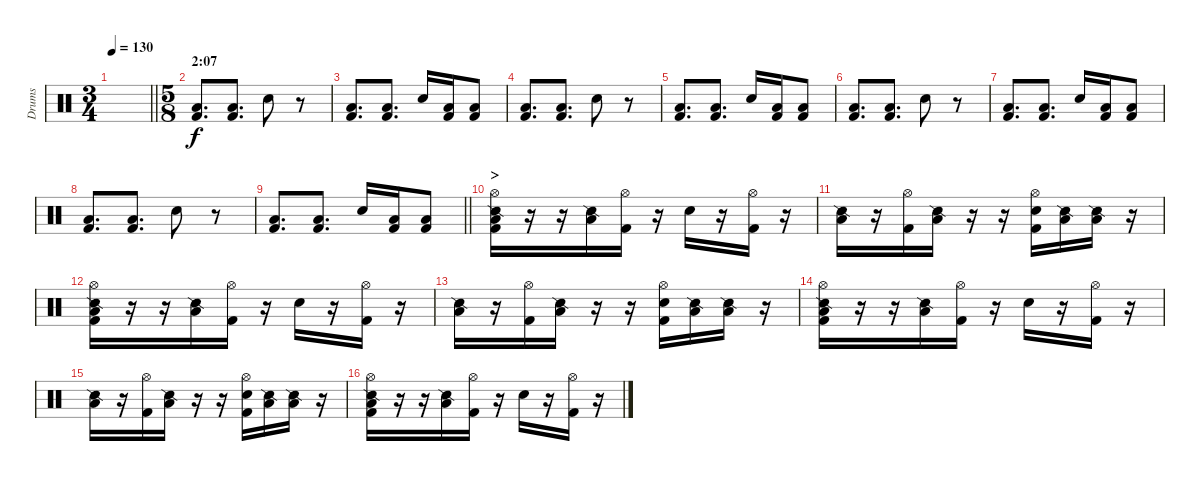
\track ("Drums" "Drums") {instrument percussion}
\staff {score}
\articulation defaults
\ts (3 4)
\tempo 130
\clef neutral
\barLineRight lightlight
\ks c
|
\ts (5 8)
\section ("" "2:07")
("Low Floor Tom (hit)" "Kick (hit) 2").8{d dy f} ("Low Floor Tom (hit)" "Kick (hit) 2").8{d} "Electric Snare (hit)".8 r.8 |
("Low Floor Tom (hit)" "Kick (hit) 2").8{d} ("Low Floor Tom (hit)" "Kick (hit) 2").8{d} "Electric Snare (hit)".16 ("Low Floor Tom (hit)" "Kick (hit) 2").16 ("Low Floor Tom (hit)" "Kick (hit) 2").8 |
("Low Floor Tom (hit)" "Kick (hit) 2").8{d} ("Low Floor Tom (hit)" "Kick (hit) 2").8{d} "Electric Snare (hit)".8 r.8 |
("Low Floor Tom (hit)" "Kick (hit) 2").8{d} ("Low Floor Tom (hit)" "Kick (hit) 2").8{d} "Electric Snare (hit)".16 ("Low Floor Tom (hit)" "Kick (hit) 2").16 ("Low Floor Tom (hit)" "Kick (hit) 2").8 |
("Low Floor Tom (hit)" "Kick (hit) 2").8{d} ("Low Floor Tom (hit)" "Kick (hit) 2").8{d} "Electric Snare (hit)".8 r.8 |
("Low Floor Tom (hit)" "Kick (hit) 2").8{d} ("Low Floor Tom (hit)" "Kick (hit) 2").8{d} "Electric Snare (hit)".16 ("Low Floor Tom (hit)" "Kick (hit) 2").16 ("Low Floor Tom (hit)" "Kick (hit) 2").8 |
("Low Floor Tom (hit)" "Kick (hit) 2").8{d} ("Low Floor Tom (hit)" "Kick (hit) 2").8{d} "Electric Snare (hit)".8 r.8 |
\barLineRight lightlight
("Low Floor Tom (hit)" "Kick (hit) 2").8{d} ("Low Floor Tom (hit)" "Kick (hit) 2").8{d} "Electric Snare (hit)".16 ("Low Floor Tom (hit)" "Kick (hit) 2").16 ("Low Floor Tom (hit)" "Kick (hit) 2").8 |
\section ("" ">")
("Hi-Hat (open)" "Low Floor Tom (hit)" "Snare (side stick) 2" "Kick (hit) 2").16 r.16 r.16 ("Low Floor Tom (hit)" "Snare (side stick) 2").16 ("Hi-Hat (open)" "Kick (hit) 2").16 r.16 "Electric Snare (hit)".16 r.16 ("Hi-Hat (open)" "Kick (hit) 2").16 r.16 |
("Low Floor Tom (hit)" "Snare (side stick) 2").16 r.16 ("Hi-Hat (open)" "Kick (hit) 2").16 ("Low Floor Tom (hit)" "Snare (side stick) 2").16 r.16 r.16 ("Hi-Hat (open)" "Electric Snare (hit)" "Kick (hit) 2").16 ("Low Floor Tom (hit)" "Snare (side stick) 2").16 ("Low Floor Tom (hit)" "Snare (side stick) 2").16 r.16 |
("Hi-Hat (open)" "Low Floor Tom (hit)" "Snare (side stick) 2" "Kick (hit) 2").16 r.16 r.16 ("Low Floor Tom (hit)" "Snare (side stick) 2").16 ("Hi-Hat (open)" "Kick (hit) 2").16 r.16 "Electric Snare (hit)".16 r.16 ("Hi-Hat (open)" "Kick (hit) 2").16 r.16 |
("Low Floor Tom (hit)" "Snare (side stick) 2").16 r.16 ("Hi-Hat (open)" "Kick (hit) 2").16 ("Low Floor Tom (hit)" "Snare (side stick) 2").16 r.16 r.16 ("Hi-Hat (open)" "Electric Snare (hit)" "Kick (hit) 2").16 ("Low Floor Tom (hit)" "Snare (side stick) 2").16 ("Low Floor Tom (hit)" "Snare (side stick) 2").16 r.16 |
("Hi-Hat (open)" "Low Floor Tom (hit)" "Snare (side stick) 2" "Kick (hit) 2").16 r.16 r.16 ("Low Floor Tom (hit)" "Snare (side stick) 2").16 ("Hi-Hat (open)" "Kick (hit) 2").16 r.16 "Electric Snare (hit)".16 r.16 ("Hi-Hat (open)" "Kick (hit) 2").16 r.16 |
("Low Floor Tom (hit)" "Snare (side stick) 2").16 r.16 ("Hi-Hat (open)" "Kick (hit) 2").16 ("Low Floor Tom (hit)" "Snare (side stick) 2").16 r.16 r.16 ("Hi-Hat (open)" "Electric Snare (hit)" "Kick (hit) 2").16 ("Low Floor Tom (hit)" "Snare (side stick) 2").16 ("Low Floor Tom (hit)" "Snare (side stick) 2").16 r.16 |
("Hi-Hat (open)" "Low Floor Tom (hit)" "Snare (side stick) 2" "Kick (hit) 2").16 r.16 r.16 ("Low Floor Tom (hit)" "Snare (side stick) 2").16 ("Hi-Hat (open)" "Kick (hit) 2").16 r.16 "Electric Snare (hit)".16 r.16 ("Hi-Hat (open)" "Kick (hit) 2").16 r.16
